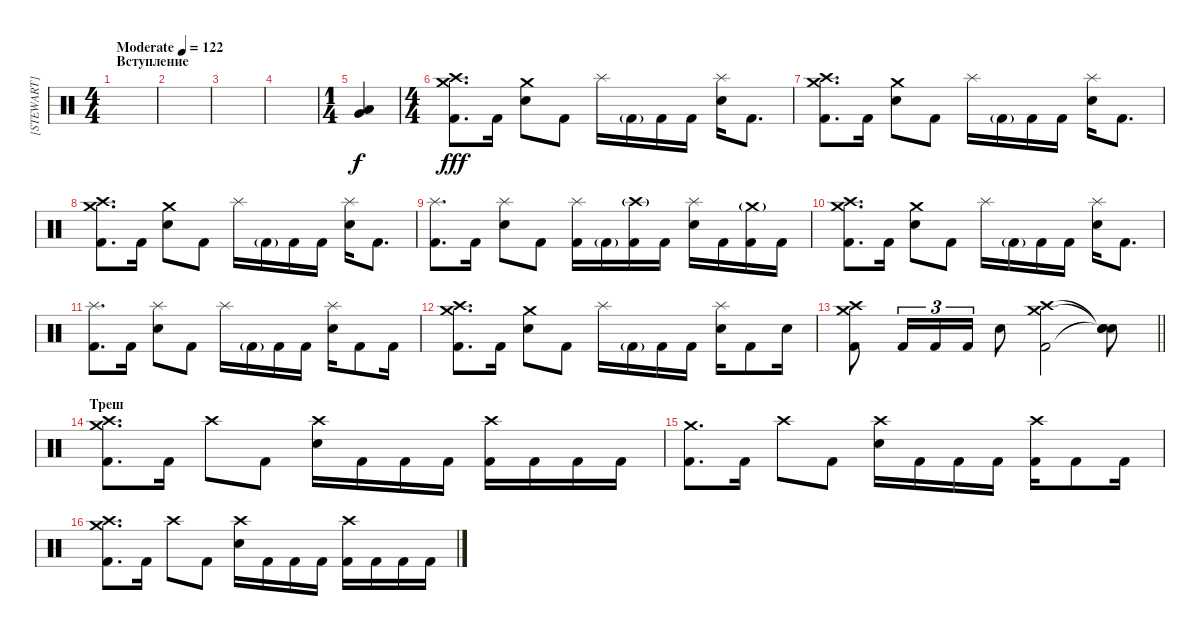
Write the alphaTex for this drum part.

\track ("[STEWART]" "[STEWART]") {instrument percussion}
\staff {score}
\articulation defaults
\ts (4 4)
\section ("" "Вступление")
\tempo (122 "Moderate")
\clef neutral
\ks c
|
|
|
|
\ts (1 4)
("Low Tom (hit)" "Very Low Tom (hit)").4 |
\ts (4 4)
("Crash medium (hit)" "Crash high (hit)" "Kick (hit) 2").8{d dy fff} "Kick (hit) 2".16 ("Crash medium (hit)" "Electric Snare (hit)").8 "Kick (hit) 2".8 "Splash (hit)".16 "Kick (hit) 2"{g}.16 "Kick (hit) 2".16 "Kick (hit) 2".16 ("Splash (hit)" "Electric Snare (hit)").16 "Kick (hit) 2".8{d} |
("Crash medium (hit)" "Crash high (hit)" "Kick (hit) 2").8{d} "Kick (hit) 2".16 ("Crash medium (hit)" "Electric Snare (hit)").8 "Kick (hit) 2".8 "Splash (hit)".16 "Kick (hit) 2"{g}.16 "Kick (hit) 2".16 "Kick (hit) 2".16 ("Splash (hit)" "Electric Snare (hit)").16 "Kick (hit) 2".8{d} |
("Crash medium (hit)" "Crash high (hit)" "Kick (hit) 2").8{d} "Kick (hit) 2".16 ("Crash medium (hit)" "Electric Snare (hit)").8 "Kick (hit) 2".8 "Splash (hit)".16 "Kick (hit) 2"{g}.16 "Kick (hit) 2".16 "Kick (hit) 2".16 ("Splash (hit)" "Electric Snare (hit)").16 "Kick (hit) 2".8{d} |
("Splash (hit)" "Kick (hit) 2").8{d} "Kick (hit) 2".16 ("Splash (hit)" "Electric Snare (hit)").8 "Kick (hit) 2".8 ("Splash (hit)" "Kick (hit) 2").16 "Kick (hit) 2"{g}.16 ("Crash high (hit)"{g} "Kick (hit) 2").16 "Kick (hit) 2".16 ("Splash (hit)" "Electric Snare (hit)").16 "Kick (hit) 2".16 ("Crash medium (hit)"{g} "Kick (hit) 2").16 "Kick (hit) 2".16 |
("Crash medium (hit)" "Crash high (hit)" "Kick (hit) 2").8{d} "Kick (hit) 2".16 ("Crash medium (hit)" "Electric Snare (hit)").8 "Kick (hit) 2".8 "Splash (hit)".16 "Kick (hit) 2"{g}.16 "Kick (hit) 2".16 "Kick (hit) 2".16 ("Splash (hit)" "Electric Snare (hit)").16 "Kick (hit) 2".8{d} |
("Splash (hit)" "Kick (hit) 2").8{d} "Kick (hit) 2".16 ("Splash (hit)" "Electric Snare (hit)").8 "Kick (hit) 2".8 "Splash (hit)".16 "Kick (hit) 2"{g}.16 "Kick (hit) 2".16 "Kick (hit) 2".16 ("Splash (hit)" "Electric Snare (hit)").16 "Kick (hit) 2".8 "Kick (hit) 2".16 |
("Crash medium (hit)" "Crash high (hit)" "Kick (hit) 2").8{d} "Kick (hit) 2".16 ("Crash medium (hit)" "Electric Snare (hit)").8 "Kick (hit) 2".8 "Splash (hit)".16 "Kick (hit) 2"{g}.16 "Kick (hit) 2".16 "Kick (hit) 2".16 ("Splash (hit)" "Electric Snare (hit)").16 "Kick (hit) 2".8 "Electric Snare (hit)".16 |
\barLineRight lightlight
("Crash medium (hit)" "Crash high (hit)" "Kick (hit) 2").8 "Kick (hit) 2".16{tu (3 2)} "Kick (hit) 2".16{tu (3 2)} "Kick (hit) 2".16{tu (3 2)} "Electric Snare (hit)".8 ("Crash medium (hit)" "Crash high (hit)" "Kick (hit) 2").2 ("Snare (hit)"{t} "Snare (hit)"{t} "Snare (hit)"{t}).8 |
\section ("" "Треш")
("Crash medium (hit)" "Crash high (hit)" "Kick (hit) 2").8{d} "Kick (hit) 2".16 "Crash high (hit)".8 "Kick (hit) 2".8 ("Crash high (hit)" "Electric Snare (hit)").16 "Kick (hit) 2".16 "Kick (hit) 2".16 "Kick (hit) 2".16 ("Crash high (hit)" "Kick (hit) 2").16 "Kick (hit) 2".16 "Kick (hit) 2".16 "Kick (hit) 2".16 |
("Crash medium (hit)" "Kick (hit) 2").8{d} "Kick (hit) 2".16 "Crash high (hit)".8 "Kick (hit) 2".8 ("Crash high (hit)" "Electric Snare (hit)").16 "Kick (hit) 2".16 "Kick (hit) 2".16 "Kick (hit) 2".16 ("Crash high (hit)" "Kick (hit) 2").16 "Kick (hit) 2".8 "Kick (hit) 2".16 |
("Crash medium (hit)" "Crash high (hit)" "Kick (hit) 2").8{d} "Kick (hit) 2".16 "Crash high (hit)".8 "Kick (hit) 2".8 ("Crash high (hit)" "Electric Snare (hit)").16 "Kick (hit) 2".16 "Kick (hit) 2".16 "Kick (hit) 2".16 ("Crash high (hit)" "Kick (hit) 2").16 "Kick (hit) 2".16 "Kick (hit) 2".16 "Kick (hit) 2".16
